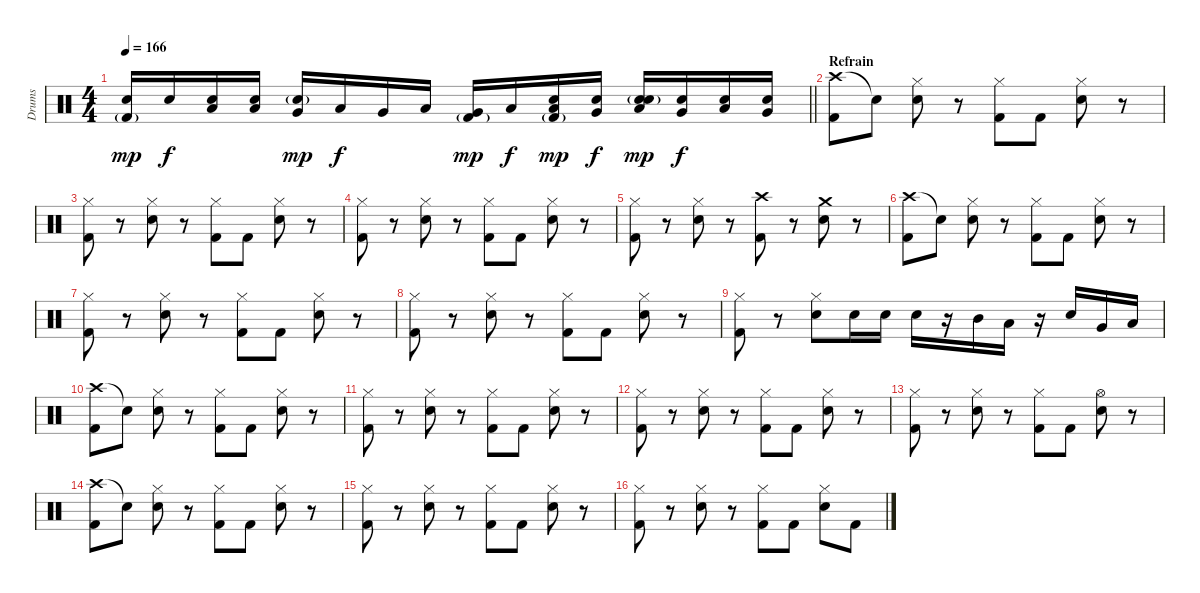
\track ("Drums" "Drums") {instrument percussion}
\staff {score}
\articulation defaults
\ts (4 4)
\tempo 166
\clef neutral
\barLineRight lightlight
\ks c
("Electric Snare (hit)" "Kick (hit) 2"{g}).16{dy mp} "Electric Snare (hit)".16{dy f} ("Snare (hit) 2" "Low Tom (hit)").16 ("Snare (hit) 2" "Low Tom (hit)").16 ("Very Low Tom (hit)" "Electric Snare (hit)"{g}).16{dy mp} "Low Tom (hit)".16{dy f} "Very Low Tom (hit)".16 "Low Floor Tom (hit)".16 ("Very Low Tom (hit)" "Kick (hit) 2"{g}).16{dy mp} "Low Floor Tom (hit)".16{dy f} ("Snare (hit) 2" "Low Tom (hit)" "Kick (hit) 2"{g}).16{dy mp} ("Snare (hit) 2" "Very Low Tom (hit)").16{dy f} ("Electric Snare (hit)" "Low Tom (hit)" "Electric Snare (hit)"{g}).16{dy mp} ("Electric Snare (hit)" "Very Low Tom (hit)").16{dy f} ("Electric Snare (hit)" "Low Floor Tom (hit)").16 ("Electric Snare (hit)" "Very Low Tom (hit)").16 |
\section ("" "Refrain")
("Crash high (hit)" "Kick (hit) 2").8 "Snare (hit)"{t}.8 ("Hi-Hat (closed)" "Electric Snare (hit)").8 r.8 ("Hi-Hat (closed)" "Kick (hit) 2").8 "Kick (hit) 2".8 ("Hi-Hat (closed)" "Electric Snare (hit)").8 r.8 |
("Hi-Hat (closed)" "Kick (hit) 2").8 r.8 ("Hi-Hat (closed)" "Electric Snare (hit)").8 r.8 ("Hi-Hat (closed)" "Kick (hit) 2").8 "Kick (hit) 2".8 ("Hi-Hat (closed)" "Electric Snare (hit)").8 r.8 |
("Hi-Hat (closed)" "Kick (hit) 2").8 r.8 ("Hi-Hat (closed)" "Electric Snare (hit)").8 r.8 ("Hi-Hat (closed)" "Kick (hit) 2").8 "Kick (hit) 2".8 ("Hi-Hat (closed)" "Electric Snare (hit)").8 r.8 |
("Hi-Hat (closed)" "Kick (hit) 2").8 r.8 ("Hi-Hat (closed)" "Electric Snare (hit)").8 r.8 ("Crash high (hit)" "Kick (hit) 2").8 r.8 ("Crash medium (hit)" "Electric Snare (hit)").8 r.8 |
("Crash high (hit)" "Kick (hit) 2").8 "Snare (hit)"{t}.8 ("Hi-Hat (closed)" "Electric Snare (hit)").8 r.8 ("Hi-Hat (closed)" "Kick (hit) 2").8 "Kick (hit) 2".8 ("Hi-Hat (closed)" "Electric Snare (hit)").8 r.8 |
("Hi-Hat (closed)" "Kick (hit) 2").8 r.8 ("Hi-Hat (closed)" "Electric Snare (hit)").8 r.8 ("Hi-Hat (closed)" "Kick (hit) 2").8 "Kick (hit) 2".8 ("Hi-Hat (closed)" "Electric Snare (hit)").8 r.8 |
("Hi-Hat (closed)" "Kick (hit) 2").8 r.8 ("Hi-Hat (closed)" "Electric Snare (hit)").8 r.8 ("Hi-Hat (closed)" "Kick (hit) 2").8 "Kick (hit) 2".8 ("Hi-Hat (closed)" "Electric Snare (hit)").8 r.8 |
("Hi-Hat (closed)" "Kick (hit) 2").8 r.8 ("Hi-Hat (closed)" "Electric Snare (hit)").8 "Electric Snare (hit)".16 "Electric Snare (hit)".16 "Electric Snare (hit)".16 r.16 "Mid Tom (hit)".16 "Low Tom (hit)".16 r.16 "Electric Snare (hit)".16 "Very Low Tom (hit)".16 "Low Floor Tom (hit)".16 |
("Crash high (hit)" "Kick (hit) 2").8 "Snare (hit)"{t}.8 ("Hi-Hat (closed)" "Electric Snare (hit)").8 r.8 ("Hi-Hat (closed)" "Kick (hit) 2").8 "Kick (hit) 2".8 ("Hi-Hat (closed)" "Electric Snare (hit)").8 r.8 |
("Hi-Hat (closed)" "Kick (hit) 2").8 r.8 ("Hi-Hat (closed)" "Electric Snare (hit)").8 r.8 ("Hi-Hat (closed)" "Kick (hit) 2").8 "Kick (hit) 2".8 ("Hi-Hat (closed)" "Electric Snare (hit)").8 r.8 |
("Hi-Hat (closed)" "Kick (hit) 2").8 r.8 ("Hi-Hat (closed)" "Electric Snare (hit)").8 r.8 ("Hi-Hat (closed)" "Kick (hit) 2").8 "Kick (hit) 2".8 ("Hi-Hat (closed)" "Electric Snare (hit)").8 r.8 |
("Hi-Hat (closed)" "Kick (hit) 2").8 r.8 ("Hi-Hat (closed)" "Electric Snare (hit)").8 r.8 ("Hi-Hat (closed)" "Kick (hit) 2").8 "Kick (hit) 2".8 ("Hi-Hat (open)" "Electric Snare (hit)").8 r.8 |
("Crash high (hit)" "Kick (hit) 2").8 "Snare (hit)"{t}.8 ("Hi-Hat (closed)" "Electric Snare (hit)").8 r.8 ("Hi-Hat (closed)" "Kick (hit) 2").8 "Kick (hit) 2".8 ("Hi-Hat (closed)" "Electric Snare (hit)").8 r.8 |
("Hi-Hat (closed)" "Kick (hit) 2").8 r.8 ("Hi-Hat (closed)" "Electric Snare (hit)").8 r.8 ("Hi-Hat (closed)" "Kick (hit) 2").8 "Kick (hit) 2".8 ("Hi-Hat (closed)" "Electric Snare (hit)").8 r.8 |
("Hi-Hat (closed)" "Kick (hit) 2").8 r.8 ("Hi-Hat (closed)" "Electric Snare (hit)").8 r.8 ("Hi-Hat (closed)" "Kick (hit) 2").8 "Kick (hit) 2".8 ("Hi-Hat (closed)" "Electric Snare (hit)").8 "Kick (hit) 2".8
